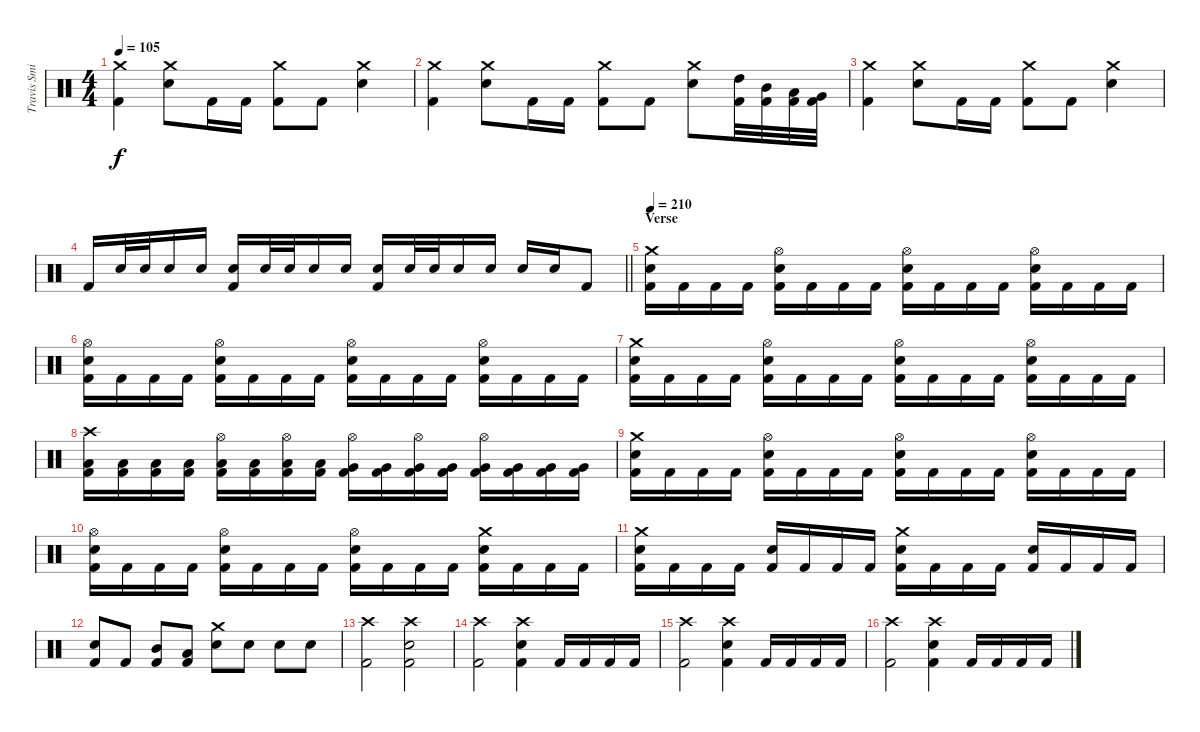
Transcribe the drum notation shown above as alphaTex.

\track ("Travis Smith" "Travis Smi") {instrument percussion}
\staff {score}
\articulation defaults
\ts (4 4)
\tempo 105
\clef neutral
\ks c
("Crash medium (hit)" "Kick (hit) 2").4{dy f} ("Crash medium (hit)" "Snare (hit) 2").8 "Kick (hit) 2".16 "Kick (hit) 2".16 ("Crash medium (hit)" "Kick (hit) 2").8 "Kick (hit) 2".8 ("Crash medium (hit)" "Snare (hit) 2").4 |
("Crash medium (hit)" "Kick (hit) 2").4 ("Crash medium (hit)" "Snare (hit) 2").8 "Kick (hit) 2".16 "Kick (hit) 2".16 ("Crash medium (hit)" "Kick (hit) 2").8 "Kick (hit) 2".8 ("Crash medium (hit)" "Snare (hit) 2").8 ("High Tom (hit)" "Kick (hit) 2").32 ("Mid Tom (hit)" "Kick (hit) 2").32 ("Low Tom (hit)" "Kick (hit) 2").32 ("Very Low Tom (hit)" "Kick (hit) 2").32 |
("Crash medium (hit)" "Kick (hit) 2").4 ("Crash medium (hit)" "Snare (hit) 2").8 "Kick (hit) 2".16 "Kick (hit) 2".16 ("Crash medium (hit)" "Kick (hit) 2").8 "Kick (hit) 2".8 ("Crash medium (hit)" "Snare (hit) 2").4 |
\barLineRight lightlight "Kick (hit) 2".16 "Snare (hit) 2".32 "Snare (hit) 2".32 "Snare (hit) 2".16 "Snare (hit) 2".16
("Snare (hit) 2" "Kick (hit) 2").16 "Snare (hit) 2".32 "Snare (hit) 2".32 "Snare (hit) 2".16 "Snare (hit) 2".16 ("Snare (hit) 2" "Kick (hit) 2").16 "Snare (hit) 2".32 "Snare (hit) 2".32 "Snare (hit) 2".16 "Snare (hit) 2".16 "Snare (hit) 2".16 "Snare (hit) 2".16 "Kick (hit) 2".8 |
\section ("" "Verse")
\tempo 210
("Crash medium (hit)" "Snare (hit) 2" "Kick (hit) 2").16 "Kick (hit) 2".16 "Kick (hit) 2".16 "Kick (hit) 2".16 ("Hi-Hat (open)" "Snare (hit) 2" "Kick (hit) 2").16 "Kick (hit) 2".16 "Kick (hit) 2".16 "Kick (hit) 2".16 ("Hi-Hat (open)" "Snare (hit) 2" "Kick (hit) 2").16 "Kick (hit) 2".16 "Kick (hit) 2".16 "Kick (hit) 2".16 ("Hi-Hat (open)" "Snare (hit) 2" "Kick (hit) 2").16 "Kick (hit) 2".16 "Kick (hit) 2".16 "Kick (hit) 2".16 |
("Hi-Hat (open)" "Snare (hit) 2" "Kick (hit) 2").16 "Kick (hit) 2".16 "Kick (hit) 2".16 "Kick (hit) 2".16 ("Hi-Hat (open)" "Snare (hit) 2" "Kick (hit) 2").16 "Kick (hit) 2".16 "Kick (hit) 2".16 "Kick (hit) 2".16 ("Hi-Hat (open)" "Snare (hit) 2" "Kick (hit) 2").16 "Kick (hit) 2".16 "Kick (hit) 2".16 "Kick (hit) 2".16 ("Hi-Hat (open)" "Snare (hit) 2" "Kick (hit) 2").16 "Kick (hit) 2".16 "Kick (hit) 2".16 "Kick (hit) 2".16 |
("Crash medium (hit)" "Snare (hit) 2" "Kick (hit) 2").16 "Kick (hit) 2".16 "Kick (hit) 2".16 "Kick (hit) 2".16 ("Hi-Hat (open)" "Snare (hit) 2" "Kick (hit) 2").16 "Kick (hit) 2".16 "Kick (hit) 2".16 "Kick (hit) 2".16 ("Hi-Hat (open)" "Snare (hit) 2" "Kick (hit) 2").16 "Kick (hit) 2".16 "Kick (hit) 2".16 "Kick (hit) 2".16 ("Hi-Hat (open)" "Snare (hit) 2" "Kick (hit) 2").16 "Kick (hit) 2".16 "Kick (hit) 2".16 "Kick (hit) 2".16 |
("Crash high (hit)" "Low Tom (hit)" "Kick (hit) 2").16 ("Low Tom (hit)" "Kick (hit) 2").16 ("Low Tom (hit)" "Kick (hit) 2").16 ("Low Tom (hit)" "Kick (hit) 2").16 ("Hi-Hat (open)" "Low Tom (hit)" "Kick (hit) 2").16 ("Low Tom (hit)" "Kick (hit) 2").16 ("Hi-Hat (open)" "Low Tom (hit)" "Kick (hit) 2").16 ("Low Tom (hit)" "Kick (hit) 2").16 ("Hi-Hat (open)" "Very Low Tom (hit)" "Kick (hit) 2").16 ("Very Low Tom (hit)" "Kick (hit) 2").16 ("Hi-Hat (open)" "Very Low Tom (hit)" "Kick (hit) 2").16 ("Very Low Tom (hit)" "Kick (hit) 2").16 ("Hi-Hat (open)" "Very Low Tom (hit)" "Kick (hit) 2").16 ("Very Low Tom (hit)" "Kick (hit) 2").16 ("Very Low Tom (hit)" "Kick (hit) 2").16 ("Very Low Tom (hit)" "Kick (hit) 2").16 |
("Crash medium (hit)" "Snare (hit) 2" "Kick (hit) 2").16 "Kick (hit) 2".16 "Kick (hit) 2".16 "Kick (hit) 2".16 ("Hi-Hat (open)" "Snare (hit) 2" "Kick (hit) 2").16 "Kick (hit) 2".16 "Kick (hit) 2".16 "Kick (hit) 2".16 ("Hi-Hat (open)" "Snare (hit) 2" "Kick (hit) 2").16 "Kick (hit) 2".16 "Kick (hit) 2".16 "Kick (hit) 2".16 ("Hi-Hat (open)" "Snare (hit) 2" "Kick (hit) 2").16 "Kick (hit) 2".16 "Kick (hit) 2".16 "Kick (hit) 2".16 |
("Hi-Hat (open)" "Snare (hit) 2" "Kick (hit) 2").16 "Kick (hit) 2".16 "Kick (hit) 2".16 "Kick (hit) 2".16 ("Hi-Hat (open)" "Snare (hit) 2" "Kick (hit) 2").16 "Kick (hit) 2".16 "Kick (hit) 2".16 "Kick (hit) 2".16 ("Hi-Hat (open)" "Snare (hit) 2" "Kick (hit) 2").16 "Kick (hit) 2".16 "Kick (hit) 2".16 "Kick (hit) 2".16 ("Crash medium (hit)" "Snare (hit) 2" "Kick (hit) 2").16 "Kick (hit) 2".16 "Kick (hit) 2".16 "Kick (hit) 2".16 |
("Crash medium (hit)" "Snare (hit) 2" "Kick (hit) 2").16 "Kick (hit) 2".16 "Kick (hit) 2".16 "Kick (hit) 2".16 ("Snare (hit) 2" "Kick (hit) 2").16 "Kick (hit) 2".16 "Kick (hit) 2".16 "Kick (hit) 2".16 ("Crash medium (hit)" "Snare (hit) 2" "Kick (hit) 2").16 "Kick (hit) 2".16 "Kick (hit) 2".16 "Kick (hit) 2".16 ("Snare (hit) 2" "Kick (hit) 2").16 "Kick (hit) 2".16 "Kick (hit) 2".16 "Kick (hit) 2".16 |
("Snare (hit) 2" "Kick (hit) 2").8 "Kick (hit) 2".8 ("Mid Tom (hit)" "Kick (hit) 2").8 ("Low Tom (hit)" "Kick (hit) 2").8 ("Crash medium (hit)" "Snare (hit) 2").8 "Snare (hit) 2".8 "Snare (hit) 2".8 "Snare (hit) 2".8 |
("Crash high (hit)" "Kick (hit) 2").2 ("Crash high (hit)" "Snare (hit) 2" "Kick (hit) 2").2 |
("Crash high (hit)" "Kick (hit) 2").2 ("Crash high (hit)" "Snare (hit) 2" "Kick (hit) 2").4 "Kick (hit) 2".16 "Kick (hit) 2".16 "Kick (hit) 2".16 "Kick (hit) 2".16 |
("Crash high (hit)" "Kick (hit) 2").2 ("Crash high (hit)" "Snare (hit) 2" "Kick (hit) 2").4 "Kick (hit) 2".16 "Kick (hit) 2".16 "Kick (hit) 2".16 "Kick (hit) 2".16 |
("Crash high (hit)" "Kick (hit) 2").2 ("Crash high (hit)" "Snare (hit) 2" "Kick (hit) 2").4 "Kick (hit) 2".16 "Kick (hit) 2".16 "Kick (hit) 2".16 "Kick (hit) 2".16
